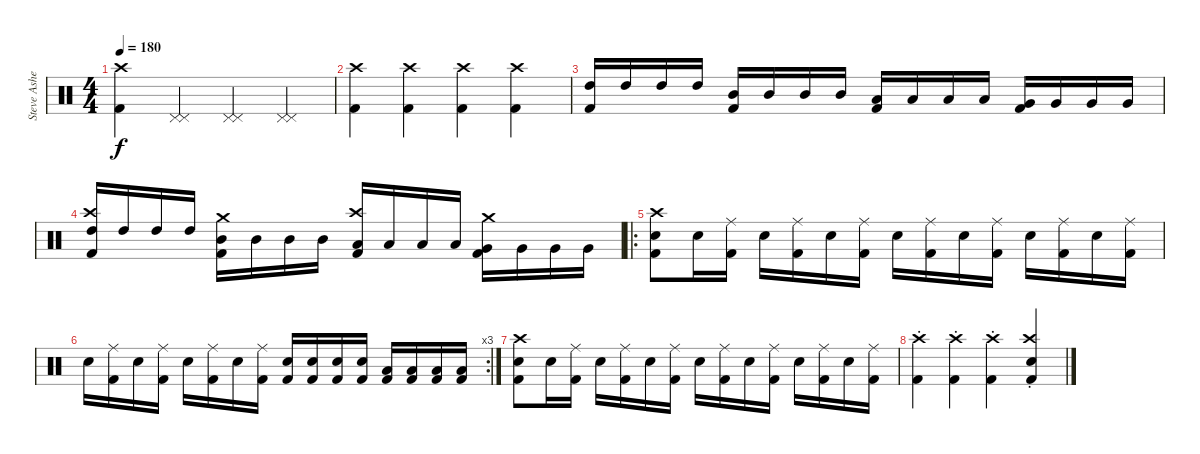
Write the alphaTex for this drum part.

\track ("Steve Asheim" "Steve Ashe") {instrument percussion}
\staff {score}
\articulation defaults
\ts (4 4)
\tempo 180
\clef neutral
\ks c
("Kick (hit) 2" "Crash high (hit)").4{dy f} ("Pedal Hi-Hat (hit)" "Pedal Hi-Hat (hit)").4 ("Pedal Hi-Hat (hit)" "Pedal Hi-Hat (hit)").4 ("Pedal Hi-Hat (hit)" "Pedal Hi-Hat (hit)").4 |
("Kick (hit) 2" "Crash high (hit)").4 ("Kick (hit) 2" "Crash high (hit)").4 ("Kick (hit) 2" "Crash high (hit)").4 ("Kick (hit) 2" "Crash high (hit)").4 |
("High Tom (hit)" "Kick (hit) 2").16 "High Tom (hit)".16 "High Tom (hit)".16 "High Tom (hit)".16 ("Mid Tom (hit)" "Kick (hit) 2").16 "Mid Tom (hit)".16 "Mid Tom (hit)".16 "Mid Tom (hit)".16 ("Low Tom (hit)" "Kick (hit) 2").16 "Low Tom (hit)".16 "Low Tom (hit)".16 "Low Tom (hit)".16 ("Very Low Tom (hit)" "Kick (hit) 2").16 "Very Low Tom (hit)".16 "Very Low Tom (hit)".16 "Very Low Tom (hit)".16 |
("Crash high (hit)" "High Tom (hit)" "Kick (hit) 2").16 "High Tom (hit)".16 "High Tom (hit)".16 "High Tom (hit)".16 ("Crash medium (hit)" "Mid Tom (hit)" "Kick (hit) 2").16 "Mid Tom (hit)".16 "Mid Tom (hit)".16 "Mid Tom (hit)".16 ("Crash high (hit)" "Low Tom (hit)" "Kick (hit) 2").16 "Low Tom (hit)".16 "Low Tom (hit)".16 "Low Tom (hit)".16 ("Crash medium (hit)" "Very Low Tom (hit)" "Kick (hit) 2").16 "Very Low Tom (hit)".16 "Very Low Tom (hit)".16 "Very Low Tom (hit)".16 |
\ro
("Kick (hit) 2" "Electric Snare (hit)" "Crash high (hit)").8 "Electric Snare (hit)".16 ("Kick (hit) 2" "Ride (middle)").16 "Electric Snare (hit)".16 ("Kick (hit) 2" "Ride (middle)").16 "Electric Snare (hit)".16 ("Kick (hit) 2" "Ride (middle)").16 "Electric Snare (hit)".16 ("Kick (hit) 2" "Ride (middle)").16 "Electric Snare (hit)".16 ("Kick (hit) 2" "Ride (middle)").16 "Electric Snare (hit)".16 ("Kick (hit) 2" "Ride (middle)").16 "Electric Snare (hit)".16 ("Kick (hit) 2" "Ride (middle)").16 |
\rc 3 "Electric Snare (hit)".16
("Kick (hit) 2" "Ride (middle)").16 "Electric Snare (hit)".16 ("Kick (hit) 2" "Ride (middle)").16 "Electric Snare (hit)".16 ("Kick (hit) 2" "Ride (middle)").16 "Electric Snare (hit)".16 ("Kick (hit) 2" "Ride (middle)").16 ("Kick (hit) 2" "Electric Snare (hit)").16 ("Kick (hit) 2" "Electric Snare (hit)").16 ("Kick (hit) 2" "Electric Snare (hit)").16 ("Kick (hit) 2" "Electric Snare (hit)").16 ("Kick (hit) 2" "Low Tom (hit)").16 ("Kick (hit) 2" "Low Tom (hit)").16 ("Kick (hit) 2" "Low Tom (hit)").16 ("Kick (hit) 2" "Low Tom (hit)").16 |
("Kick (hit) 2" "Electric Snare (hit)" "Crash high (hit)").8 "Electric Snare (hit)".16 ("Kick (hit) 2" "Ride (middle)").16 "Electric Snare (hit)".16 ("Kick (hit) 2" "Ride (middle)").16 "Electric Snare (hit)".16 ("Kick (hit) 2" "Ride (middle)").16 "Electric Snare (hit)".16 ("Kick (hit) 2" "Ride (middle)").16 "Electric Snare (hit)".16 ("Kick (hit) 2" "Ride (middle)").16 "Electric Snare (hit)".16 ("Kick (hit) 2" "Ride (middle)").16 "Electric Snare (hit)".16 ("Kick (hit) 2" "Ride (middle)").16 |
("Kick (hit) 2"{st} "Crash high (hit)"{st}).4 ("Kick (hit) 2"{st} "Crash high (hit)"{st}).4 ("Kick (hit) 2"{st} "Crash high (hit)"{st}).4 ("Kick (hit) 2"{st} "Electric Snare (hit)" "Crash high (hit)"{st}).4
